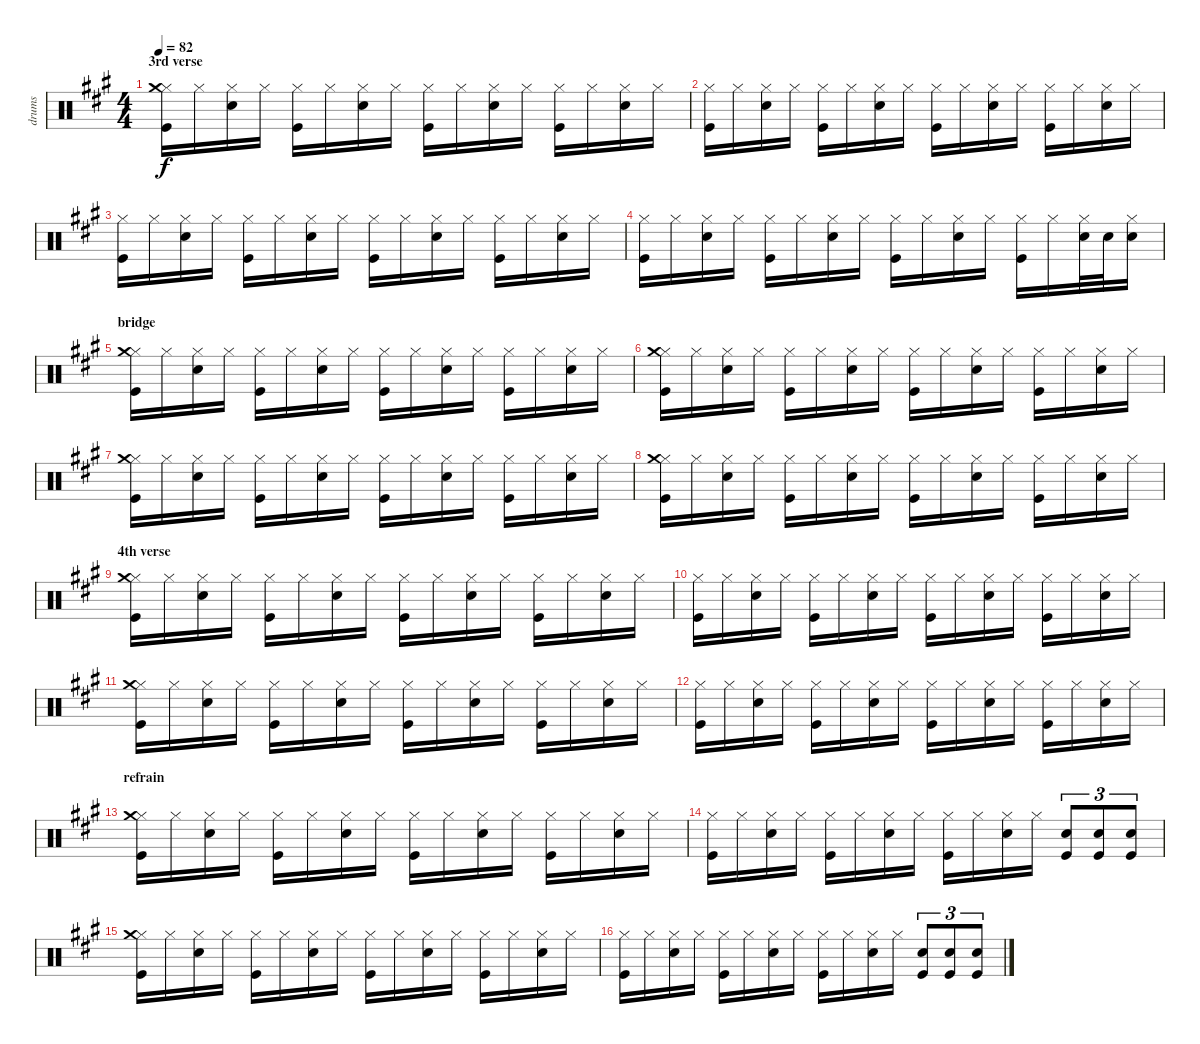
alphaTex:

\track ("drums" "drums") {instrument percussion}
\staff {score}
\articulation defaults
\ts (4 4)
\section ("" "3rd verse")
\tempo 82
\clef neutral
\ks a
("Hi-Hat (closed)" "Crash medium (hit)" "Kick (hit)").16{dy f} "Hi-Hat (closed)".16 ("Hi-Hat (closed)" "Snare (hit) 2").16 "Hi-Hat (closed)".16 ("Hi-Hat (closed)" "Kick (hit)").16 "Hi-Hat (closed)".16 ("Hi-Hat (closed)" "Snare (hit) 2").16 "Hi-Hat (closed)".16 ("Hi-Hat (closed)" "Kick (hit)").16 "Hi-Hat (closed)".16 ("Hi-Hat (closed)" "Snare (hit) 2").16 "Hi-Hat (closed)".16 ("Hi-Hat (closed)" "Kick (hit)").16 "Hi-Hat (closed)".16 ("Hi-Hat (closed)" "Snare (hit) 2").16 "Hi-Hat (closed)".16 |
("Hi-Hat (closed)" "Kick (hit)").16 "Hi-Hat (closed)".16 ("Hi-Hat (closed)" "Snare (hit) 2").16 "Hi-Hat (closed)".16 ("Hi-Hat (closed)" "Kick (hit)").16 "Hi-Hat (closed)".16 ("Hi-Hat (closed)" "Snare (hit) 2").16 "Hi-Hat (closed)".16 ("Hi-Hat (closed)" "Kick (hit)").16 "Hi-Hat (closed)".16 ("Hi-Hat (closed)" "Snare (hit) 2").16 "Hi-Hat (closed)".16 ("Hi-Hat (closed)" "Kick (hit)").16 "Hi-Hat (closed)".16 ("Hi-Hat (closed)" "Snare (hit) 2").16 "Hi-Hat (closed)".16 |
("Hi-Hat (closed)" "Kick (hit)").16 "Hi-Hat (closed)".16 ("Hi-Hat (closed)" "Snare (hit) 2").16 "Hi-Hat (closed)".16 ("Hi-Hat (closed)" "Kick (hit)").16 "Hi-Hat (closed)".16 ("Hi-Hat (closed)" "Snare (hit) 2").16 "Hi-Hat (closed)".16 ("Hi-Hat (closed)" "Kick (hit)").16 "Hi-Hat (closed)".16 ("Hi-Hat (closed)" "Snare (hit) 2").16 "Hi-Hat (closed)".16 ("Hi-Hat (closed)" "Kick (hit)").16 "Hi-Hat (closed)".16 ("Hi-Hat (closed)" "Snare (hit) 2").16 "Hi-Hat (closed)".16 |
("Hi-Hat (closed)" "Kick (hit)").16 "Hi-Hat (closed)".16 ("Hi-Hat (closed)" "Snare (hit) 2").16 "Hi-Hat (closed)".16 ("Hi-Hat (closed)" "Kick (hit)").16 "Hi-Hat (closed)".16 ("Hi-Hat (closed)" "Snare (hit) 2").16 "Hi-Hat (closed)".16 ("Hi-Hat (closed)" "Kick (hit)").16 "Hi-Hat (closed)".16 ("Hi-Hat (closed)" "Snare (hit) 2").16 "Hi-Hat (closed)".16 ("Hi-Hat (closed)" "Kick (hit)").16 "Hi-Hat (closed)".16 ("Hi-Hat (closed)" "Snare (hit) 2").32 "Snare (hit) 2".32 ("Hi-Hat (closed)" "Snare (hit) 2").16 |
\section ("" "bridge")
("Hi-Hat (closed)" "Crash medium (hit)" "Kick (hit)").16 "Hi-Hat (closed)".16 ("Hi-Hat (closed)" "Snare (hit) 2").16 "Hi-Hat (closed)".16 ("Hi-Hat (closed)" "Kick (hit)").16 "Hi-Hat (closed)".16 ("Hi-Hat (closed)" "Snare (hit) 2").16 "Hi-Hat (closed)".16 ("Hi-Hat (closed)" "Kick (hit)").16 "Hi-Hat (closed)".16 ("Hi-Hat (closed)" "Snare (hit) 2").16 "Hi-Hat (closed)".16 ("Hi-Hat (closed)" "Kick (hit)").16 "Hi-Hat (closed)".16 ("Hi-Hat (closed)" "Snare (hit) 2").16 "Hi-Hat (closed)".16 |
("Hi-Hat (closed)" "Crash medium (hit)" "Kick (hit)").16 "Hi-Hat (closed)".16 ("Hi-Hat (closed)" "Snare (hit) 2").16 "Hi-Hat (closed)".16 ("Hi-Hat (closed)" "Kick (hit)").16 "Hi-Hat (closed)".16 ("Hi-Hat (closed)" "Snare (hit) 2").16 "Hi-Hat (closed)".16 ("Hi-Hat (closed)" "Kick (hit)").16 "Hi-Hat (closed)".16 ("Hi-Hat (closed)" "Snare (hit) 2").16 "Hi-Hat (closed)".16 ("Hi-Hat (closed)" "Kick (hit)").16 "Hi-Hat (closed)".16 ("Hi-Hat (closed)" "Snare (hit) 2").16 "Hi-Hat (closed)".16 |
("Hi-Hat (closed)" "Crash medium (hit)" "Kick (hit)").16 "Hi-Hat (closed)".16 ("Hi-Hat (closed)" "Snare (hit) 2").16 "Hi-Hat (closed)".16 ("Hi-Hat (closed)" "Kick (hit)").16 "Hi-Hat (closed)".16 ("Hi-Hat (closed)" "Snare (hit) 2").16 "Hi-Hat (closed)".16 ("Hi-Hat (closed)" "Kick (hit)").16 "Hi-Hat (closed)".16 ("Hi-Hat (closed)" "Snare (hit) 2").16 "Hi-Hat (closed)".16 ("Hi-Hat (closed)" "Kick (hit)").16 "Hi-Hat (closed)".16 ("Hi-Hat (closed)" "Snare (hit) 2").16 "Hi-Hat (closed)".16 |
("Hi-Hat (closed)" "Crash medium (hit)" "Kick (hit)").16 "Hi-Hat (closed)".16 ("Hi-Hat (closed)" "Snare (hit) 2").16 "Hi-Hat (closed)".16 ("Hi-Hat (closed)" "Kick (hit)").16 "Hi-Hat (closed)".16 ("Hi-Hat (closed)" "Snare (hit) 2").16 "Hi-Hat (closed)".16 ("Hi-Hat (closed)" "Kick (hit)").16 "Hi-Hat (closed)".16 ("Hi-Hat (closed)" "Snare (hit) 2").16 "Hi-Hat (closed)".16 ("Hi-Hat (closed)" "Kick (hit)").16 "Hi-Hat (closed)".16 ("Hi-Hat (closed)" "Snare (hit) 2").16 "Hi-Hat (closed)".16 |
\section ("" "4th verse")
("Hi-Hat (closed)" "Crash medium (hit)" "Kick (hit)").16 "Hi-Hat (closed)".16 ("Hi-Hat (closed)" "Snare (hit) 2").16 "Hi-Hat (closed)".16 ("Hi-Hat (closed)" "Kick (hit)").16 "Hi-Hat (closed)".16 ("Hi-Hat (closed)" "Snare (hit) 2").16 "Hi-Hat (closed)".16 ("Hi-Hat (closed)" "Kick (hit)").16 "Hi-Hat (closed)".16 ("Hi-Hat (closed)" "Snare (hit) 2").16 "Hi-Hat (closed)".16 ("Hi-Hat (closed)" "Kick (hit)").16 "Hi-Hat (closed)".16 ("Hi-Hat (closed)" "Snare (hit) 2").16 "Hi-Hat (closed)".16 |
("Hi-Hat (closed)" "Kick (hit)").16 "Hi-Hat (closed)".16 ("Hi-Hat (closed)" "Snare (hit) 2").16 "Hi-Hat (closed)".16 ("Hi-Hat (closed)" "Kick (hit)").16 "Hi-Hat (closed)".16 ("Hi-Hat (closed)" "Snare (hit) 2").16 "Hi-Hat (closed)".16 ("Hi-Hat (closed)" "Kick (hit)").16 "Hi-Hat (closed)".16 ("Hi-Hat (closed)" "Snare (hit) 2").16 "Hi-Hat (closed)".16 ("Hi-Hat (closed)" "Kick (hit)").16 "Hi-Hat (closed)".16 ("Hi-Hat (closed)" "Snare (hit) 2").16 "Hi-Hat (closed)".16 |
("Hi-Hat (closed)" "Crash medium (hit)" "Kick (hit)").16 "Hi-Hat (closed)".16 ("Hi-Hat (closed)" "Snare (hit) 2").16 "Hi-Hat (closed)".16 ("Hi-Hat (closed)" "Kick (hit)").16 "Hi-Hat (closed)".16 ("Hi-Hat (closed)" "Snare (hit) 2").16 "Hi-Hat (closed)".16 ("Hi-Hat (closed)" "Kick (hit)").16 "Hi-Hat (closed)".16 ("Hi-Hat (closed)" "Snare (hit) 2").16 "Hi-Hat (closed)".16 ("Hi-Hat (closed)" "Kick (hit)").16 "Hi-Hat (closed)".16 ("Hi-Hat (closed)" "Snare (hit) 2").16 "Hi-Hat (closed)".16 |
("Hi-Hat (closed)" "Kick (hit)").16 "Hi-Hat (closed)".16 ("Hi-Hat (closed)" "Snare (hit) 2").16 "Hi-Hat (closed)".16 ("Hi-Hat (closed)" "Kick (hit)").16 "Hi-Hat (closed)".16 ("Hi-Hat (closed)" "Snare (hit) 2").16 "Hi-Hat (closed)".16 ("Hi-Hat (closed)" "Kick (hit)").16 "Hi-Hat (closed)".16 ("Hi-Hat (closed)" "Snare (hit) 2").16 "Hi-Hat (closed)".16 ("Hi-Hat (closed)" "Kick (hit)").16 "Hi-Hat (closed)".16 ("Hi-Hat (closed)" "Snare (hit) 2").16 "Hi-Hat (closed)".16 |
\section ("" "refrain")
("Hi-Hat (closed)" "Crash medium (hit)" "Kick (hit)").16 "Hi-Hat (closed)".16 ("Hi-Hat (closed)" "Snare (hit) 2").16 "Hi-Hat (closed)".16 ("Hi-Hat (closed)" "Kick (hit)").16 "Hi-Hat (closed)".16 ("Hi-Hat (closed)" "Snare (hit) 2").16 "Hi-Hat (closed)".16 ("Hi-Hat (closed)" "Kick (hit)").16 "Hi-Hat (closed)".16 ("Hi-Hat (closed)" "Snare (hit) 2").16 "Hi-Hat (closed)".16 ("Hi-Hat (closed)" "Kick (hit)").16 "Hi-Hat (closed)".16 ("Hi-Hat (closed)" "Snare (hit) 2").16 "Hi-Hat (closed)".16 |
("Hi-Hat (closed)" "Kick (hit)").16 "Hi-Hat (closed)".16 ("Hi-Hat (closed)" "Snare (hit) 2").16 "Hi-Hat (closed)".16 ("Hi-Hat (closed)" "Kick (hit)").16 "Hi-Hat (closed)".16 ("Hi-Hat (closed)" "Snare (hit) 2").16 "Hi-Hat (closed)".16 ("Hi-Hat (closed)" "Kick (hit)").16 "Hi-Hat (closed)".16 ("Hi-Hat (closed)" "Snare (hit) 2").16 "Hi-Hat (closed)".16 ("Snare (hit) 2" "Kick (hit)").8{tu (3 2)} ("Snare (hit) 2" "Kick (hit)").8{tu (3 2)} ("Snare (hit) 2" "Kick (hit)").8{tu (3 2)} |
("Hi-Hat (closed)" "Crash medium (hit)" "Kick (hit)").16 "Hi-Hat (closed)".16 ("Hi-Hat (closed)" "Snare (hit) 2").16 "Hi-Hat (closed)".16 ("Hi-Hat (closed)" "Kick (hit)").16 "Hi-Hat (closed)".16 ("Hi-Hat (closed)" "Snare (hit) 2").16 "Hi-Hat (closed)".16 ("Hi-Hat (closed)" "Kick (hit)").16 "Hi-Hat (closed)".16 ("Hi-Hat (closed)" "Snare (hit) 2").16 "Hi-Hat (closed)".16 ("Hi-Hat (closed)" "Kick (hit)").16 "Hi-Hat (closed)".16 ("Hi-Hat (closed)" "Snare (hit) 2").16 "Hi-Hat (closed)".16 |
("Hi-Hat (closed)" "Kick (hit)").16 "Hi-Hat (closed)".16 ("Hi-Hat (closed)" "Snare (hit) 2").16 "Hi-Hat (closed)".16 ("Hi-Hat (closed)" "Kick (hit)").16 "Hi-Hat (closed)".16 ("Hi-Hat (closed)" "Snare (hit) 2").16 "Hi-Hat (closed)".16 ("Hi-Hat (closed)" "Kick (hit)").16 "Hi-Hat (closed)".16 ("Hi-Hat (closed)" "Snare (hit) 2").16 "Hi-Hat (closed)".16 ("Snare (hit) 2" "Kick (hit)").8{tu (3 2)} ("Snare (hit) 2" "Kick (hit)").8{tu (3 2)} ("Snare (hit) 2" "Kick (hit)").8{tu (3 2)}
